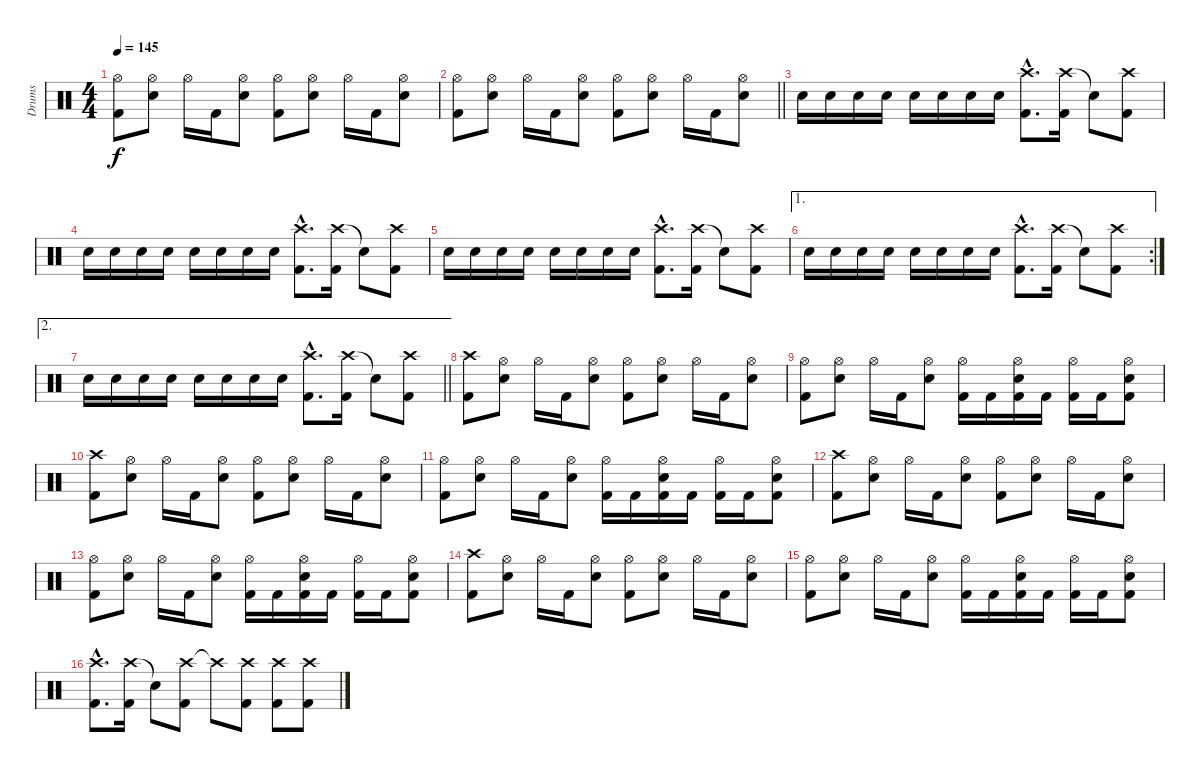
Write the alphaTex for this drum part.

\track ("Drums" "Drums") {instrument percussion}
\staff {score}
\articulation defaults
\ts (4 4)
\tempo 145
\clef neutral
\ks c
("Hi-Hat (open)" "Kick (hit) 2").8{dy f} ("Hi-Hat (open)" "Snare (hit) 2").8 "Hi-Hat (open)".16 "Kick (hit) 2".16 ("Hi-Hat (open)" "Snare (hit) 2").8 ("Hi-Hat (open)" "Kick (hit) 2").8 ("Hi-Hat (open)" "Snare (hit) 2").8 "Hi-Hat (open)".16 "Kick (hit) 2".16 ("Hi-Hat (open)" "Snare (hit) 2").8 |
\barLineRight lightlight
("Hi-Hat (open)" "Kick (hit) 2").8 ("Hi-Hat (open)" "Snare (hit) 2").8 "Hi-Hat (open)".16 "Kick (hit) 2".16 ("Hi-Hat (open)" "Snare (hit) 2").8 ("Hi-Hat (open)" "Kick (hit) 2").8 ("Hi-Hat (open)" "Snare (hit) 2").8 "Hi-Hat (open)".16 "Kick (hit) 2".16 ("Hi-Hat (open)" "Snare (hit) 2").8 |
"Snare (hit) 2".16 "Snare (hit) 2".16 "Snare (hit) 2".16 "Snare (hit) 2".16 "Snare (hit) 2".16 "Snare (hit) 2".16 "Snare (hit) 2".16 "Snare (hit) 2".16 ("Crash high (hit)"{hac} "Kick (hit) 2"{hac}).8{d} ("Crash high (hit)" "Kick (hit) 2").16 "Snare (hit)"{t}.8 ("Crash high (hit)" "Kick (hit) 2").8 |
"Snare (hit) 2".16 "Snare (hit) 2".16 "Snare (hit) 2".16 "Snare (hit) 2".16 "Snare (hit) 2".16 "Snare (hit) 2".16 "Snare (hit) 2".16 "Snare (hit) 2".16 ("Crash high (hit)"{hac} "Kick (hit) 2"{hac}).8{d} ("Crash high (hit)" "Kick (hit) 2").16 "Snare (hit)"{t}.8 ("Crash high (hit)" "Kick (hit) 2").8 |
"Snare (hit) 2".16 "Snare (hit) 2".16 "Snare (hit) 2".16 "Snare (hit) 2".16 "Snare (hit) 2".16 "Snare (hit) 2".16 "Snare (hit) 2".16 "Snare (hit) 2".16 ("Crash high (hit)"{hac} "Kick (hit) 2"{hac}).8{d} ("Crash high (hit)" "Kick (hit) 2").16 "Snare (hit)"{t}.8 ("Crash high (hit)" "Kick (hit) 2").8 |
\ae 1
\rc 2 "Snare (hit) 2".16 "Snare (hit) 2".16 "Snare (hit) 2".16 "Snare (hit) 2".16 "Snare (hit) 2".16 "Snare (hit) 2".16 "Snare (hit) 2".16 "Snare (hit) 2".16
("Crash high (hit)"{hac} "Kick (hit) 2"{hac}).8{d} ("Crash high (hit)" "Kick (hit) 2").16 "Snare (hit)"{t}.8 ("Crash high (hit)" "Kick (hit) 2").8 |
\ae 2
\barLineRight lightlight "Snare (hit) 2".16 "Snare (hit) 2".16 "Snare (hit) 2".16 "Snare (hit) 2".16 "Snare (hit) 2".16 "Snare (hit) 2".16 "Snare (hit) 2".16 "Snare (hit) 2".16
("Crash high (hit)"{hac} "Kick (hit) 2"{hac}).8{d} ("Crash high (hit)" "Kick (hit) 2").16 "Snare (hit)"{t}.8 ("Crash high (hit)" "Kick (hit) 2").8 |
("Crash high (hit)" "Kick (hit) 2").8 ("Hi-Hat (open)" "Snare (hit) 2").8 "Hi-Hat (open)".16 "Kick (hit) 2".16 ("Hi-Hat (open)" "Snare (hit) 2").8 ("Hi-Hat (open)" "Kick (hit) 2").8 ("Hi-Hat (open)" "Snare (hit) 2").8 "Hi-Hat (open)".16 "Kick (hit) 2".16 ("Hi-Hat (open)" "Snare (hit) 2").8 |
("Hi-Hat (open)" "Kick (hit) 2").8 ("Hi-Hat (open)" "Snare (hit) 2").8 "Hi-Hat (open)".16 "Kick (hit) 2".16 ("Hi-Hat (open)" "Snare (hit) 2").8 ("Hi-Hat (open)" "Kick (hit) 2").16 "Kick (hit) 2".16 ("Hi-Hat (open)" "Snare (hit) 2" "Kick (hit) 2").16 "Kick (hit) 2".16 ("Hi-Hat (open)" "Kick (hit) 2").16 "Kick (hit) 2".16 ("Hi-Hat (open)" "Snare (hit) 2" "Kick (hit) 2").8 |
("Crash high (hit)" "Kick (hit) 2").8 ("Hi-Hat (open)" "Snare (hit) 2").8 "Hi-Hat (open)".16 "Kick (hit) 2".16 ("Hi-Hat (open)" "Snare (hit) 2").8 ("Hi-Hat (open)" "Kick (hit) 2").8 ("Hi-Hat (open)" "Snare (hit) 2").8 "Hi-Hat (open)".16 "Kick (hit) 2".16 ("Hi-Hat (open)" "Snare (hit) 2").8 |
("Hi-Hat (open)" "Kick (hit) 2").8 ("Hi-Hat (open)" "Snare (hit) 2").8 "Hi-Hat (open)".16 "Kick (hit) 2".16 ("Hi-Hat (open)" "Snare (hit) 2").8 ("Hi-Hat (open)" "Kick (hit) 2").16 "Kick (hit) 2".16 ("Hi-Hat (open)" "Snare (hit) 2" "Kick (hit) 2").16 "Kick (hit) 2".16 ("Hi-Hat (open)" "Kick (hit) 2").16 "Kick (hit) 2".16 ("Hi-Hat (open)" "Snare (hit) 2" "Kick (hit) 2").8 |
("Crash high (hit)" "Kick (hit) 2").8 ("Hi-Hat (open)" "Snare (hit) 2").8 "Hi-Hat (open)".16 "Kick (hit) 2".16 ("Hi-Hat (open)" "Snare (hit) 2").8 ("Hi-Hat (open)" "Kick (hit) 2").8 ("Hi-Hat (open)" "Snare (hit) 2").8 "Hi-Hat (open)".16 "Kick (hit) 2".16 ("Hi-Hat (open)" "Snare (hit) 2").8 |
("Hi-Hat (open)" "Kick (hit) 2").8 ("Hi-Hat (open)" "Snare (hit) 2").8 "Hi-Hat (open)".16 "Kick (hit) 2".16 ("Hi-Hat (open)" "Snare (hit) 2").8 ("Hi-Hat (open)" "Kick (hit) 2").16 "Kick (hit) 2".16 ("Hi-Hat (open)" "Snare (hit) 2" "Kick (hit) 2").16 "Kick (hit) 2".16 ("Hi-Hat (open)" "Kick (hit) 2").16 "Kick (hit) 2".16 ("Hi-Hat (open)" "Snare (hit) 2" "Kick (hit) 2").8 |
("Crash high (hit)" "Kick (hit) 2").8 ("Hi-Hat (open)" "Snare (hit) 2").8 "Hi-Hat (open)".16 "Kick (hit) 2".16 ("Hi-Hat (open)" "Snare (hit) 2").8 ("Hi-Hat (open)" "Kick (hit) 2").8 ("Hi-Hat (open)" "Snare (hit) 2").8 "Hi-Hat (open)".16 "Kick (hit) 2".16 ("Hi-Hat (open)" "Snare (hit) 2").8 |
("Hi-Hat (open)" "Kick (hit) 2").8 ("Hi-Hat (open)" "Snare (hit) 2").8 "Hi-Hat (open)".16 "Kick (hit) 2".16 ("Hi-Hat (open)" "Snare (hit) 2").8 ("Hi-Hat (open)" "Kick (hit) 2").16 "Kick (hit) 2".16 ("Hi-Hat (open)" "Snare (hit) 2" "Kick (hit) 2").16 "Kick (hit) 2".16 ("Hi-Hat (open)" "Kick (hit) 2").16 "Kick (hit) 2".16 ("Hi-Hat (open)" "Snare (hit) 2" "Kick (hit) 2").8 |
("Crash high (hit)"{hac} "Kick (hit) 2"{hac}).8{d} ("Crash high (hit)" "Kick (hit) 2").16 "Snare (hit)"{t}.8 ("Crash high (hit)" "Kick (hit) 2").8 "Crash high (hit)"{t}.8 ("Crash high (hit)" "Kick (hit) 2").8 ("Crash high (hit)" "Kick (hit) 2").8 ("Crash high (hit)" "Kick (hit) 2").8
